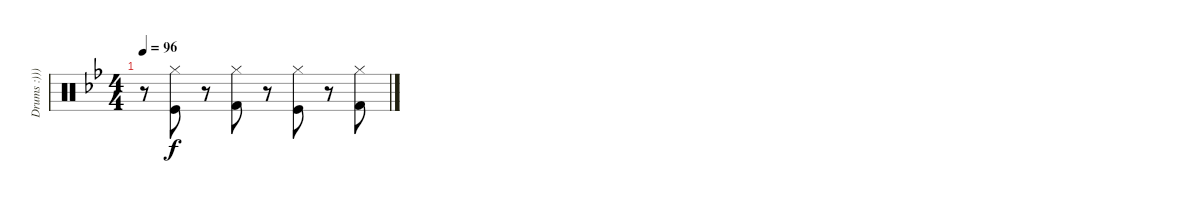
\track ("Drums :)))" "Drums :)))") {instrument percussion}
\staff
\articulation defaults
\ts (4 4)
\tempo 96
\clef neutral
\ks bb
r.8{dy f} ("Hi-Hat (closed)" "Kick (hit)").8 r.8 ("Hi-Hat (closed)" "Kick (hit) 2").8 r.8 ("Hi-Hat (closed)" "Kick (hit)").8 r.8 ("Hi-Hat (closed)" "Kick (hit) 2").8
